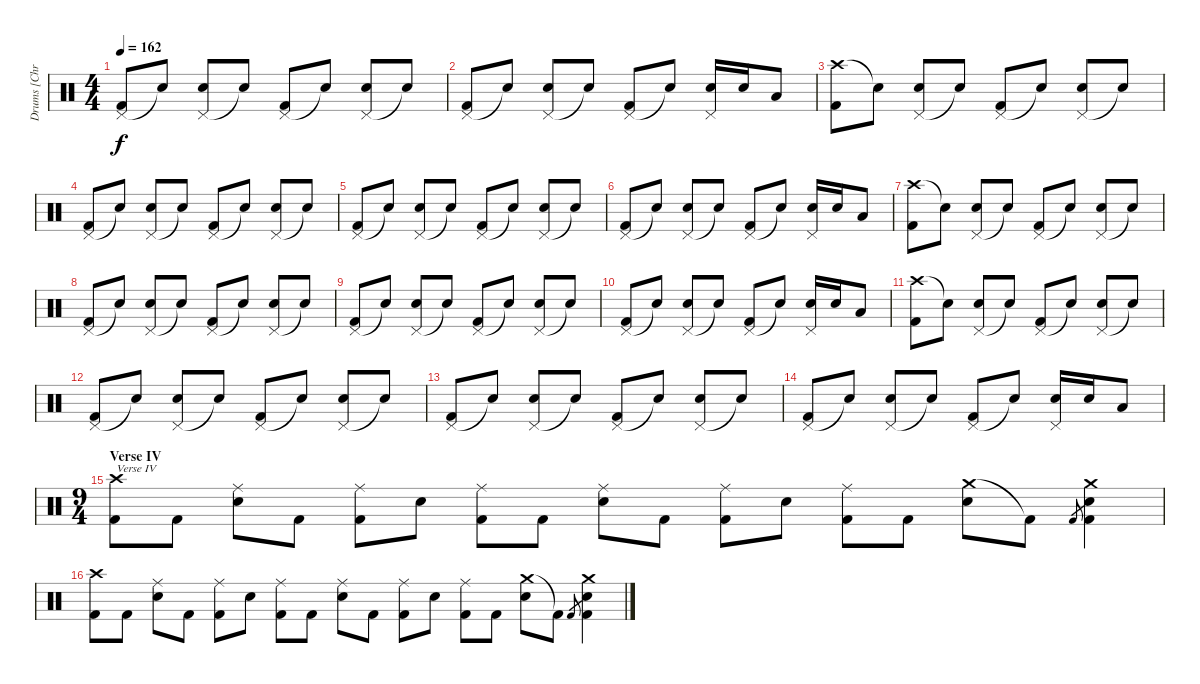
\track ("Drums [Chris Maitland]" "Drums [Chr") {instrument percussion}
\staff {score}
\articulation defaults
\ts (4 4)
\tempo 162
\clef neutral
\ks c
("Pedal Hi-Hat (hit)" "Kick (hit) 2").8{dy f} "Snare (hit)"{t}.8 ("Pedal Hi-Hat (hit)" "Electric Snare (hit)").8 "Snare (hit)"{t}.8 ("Pedal Hi-Hat (hit)" "Kick (hit) 2").8 "Snare (hit)"{t}.8 ("Pedal Hi-Hat (hit)" "Electric Snare (hit)").8 "Snare (hit)"{t}.8 |
("Pedal Hi-Hat (hit)" "Kick (hit) 2").8 "Snare (hit)"{t}.8 ("Pedal Hi-Hat (hit)" "Electric Snare (hit)").8 "Snare (hit)"{t}.8 ("Pedal Hi-Hat (hit)" "Kick (hit) 2").8 "Snare (hit)"{t}.8 ("Pedal Hi-Hat (hit)" "Electric Snare (hit)").16 "Electric Snare (hit)".16 "Low Tom (hit)".8 |
("Crash high (hit)" "Kick (hit) 2").8 "Snare (hit)"{t}.8 ("Pedal Hi-Hat (hit)" "Electric Snare (hit)").8 "Snare (hit)"{t}.8 ("Pedal Hi-Hat (hit)" "Kick (hit) 2").8 "Snare (hit)"{t}.8 ("Pedal Hi-Hat (hit)" "Electric Snare (hit)").8 "Snare (hit)"{t}.8 |
("Pedal Hi-Hat (hit)" "Kick (hit) 2").8 "Snare (hit)"{t}.8 ("Pedal Hi-Hat (hit)" "Electric Snare (hit)").8 "Snare (hit)"{t}.8 ("Pedal Hi-Hat (hit)" "Kick (hit) 2").8 "Snare (hit)"{t}.8 ("Pedal Hi-Hat (hit)" "Electric Snare (hit)").8 "Snare (hit)"{t}.8 |
("Pedal Hi-Hat (hit)" "Kick (hit) 2").8 "Snare (hit)"{t}.8 ("Pedal Hi-Hat (hit)" "Electric Snare (hit)").8 "Snare (hit)"{t}.8 ("Pedal Hi-Hat (hit)" "Kick (hit) 2").8 "Snare (hit)"{t}.8 ("Pedal Hi-Hat (hit)" "Electric Snare (hit)").8 "Snare (hit)"{t}.8 |
("Pedal Hi-Hat (hit)" "Kick (hit) 2").8 "Snare (hit)"{t}.8 ("Pedal Hi-Hat (hit)" "Electric Snare (hit)").8 "Snare (hit)"{t}.8 ("Pedal Hi-Hat (hit)" "Kick (hit) 2").8 "Snare (hit)"{t}.8 ("Pedal Hi-Hat (hit)" "Electric Snare (hit)").16 "Electric Snare (hit)".16 "Low Tom (hit)".8 |
("Crash high (hit)" "Kick (hit) 2").8 "Snare (hit)"{t}.8 ("Pedal Hi-Hat (hit)" "Electric Snare (hit)").8 "Snare (hit)"{t}.8 ("Pedal Hi-Hat (hit)" "Kick (hit) 2").8 "Snare (hit)"{t}.8 ("Pedal Hi-Hat (hit)" "Electric Snare (hit)").8 "Snare (hit)"{t}.8 |
("Pedal Hi-Hat (hit)" "Kick (hit) 2").8 "Snare (hit)"{t}.8 ("Pedal Hi-Hat (hit)" "Electric Snare (hit)").8 "Snare (hit)"{t}.8 ("Pedal Hi-Hat (hit)" "Kick (hit) 2").8 "Snare (hit)"{t}.8 ("Pedal Hi-Hat (hit)" "Electric Snare (hit)").8 "Snare (hit)"{t}.8 |
("Pedal Hi-Hat (hit)" "Kick (hit) 2").8 "Snare (hit)"{t}.8 ("Pedal Hi-Hat (hit)" "Electric Snare (hit)").8 "Snare (hit)"{t}.8 ("Pedal Hi-Hat (hit)" "Kick (hit) 2").8 "Snare (hit)"{t}.8 ("Pedal Hi-Hat (hit)" "Electric Snare (hit)").8 "Snare (hit)"{t}.8 |
("Pedal Hi-Hat (hit)" "Kick (hit) 2").8 "Snare (hit)"{t}.8 ("Pedal Hi-Hat (hit)" "Electric Snare (hit)").8 "Snare (hit)"{t}.8 ("Pedal Hi-Hat (hit)" "Kick (hit) 2").8 "Snare (hit)"{t}.8 ("Pedal Hi-Hat (hit)" "Electric Snare (hit)").16 "Electric Snare (hit)".16 "Low Tom (hit)".8 |
("Crash high (hit)" "Kick (hit) 2").8 "Snare (hit)"{t}.8 ("Pedal Hi-Hat (hit)" "Electric Snare (hit)").8 "Snare (hit)"{t}.8 ("Pedal Hi-Hat (hit)" "Kick (hit) 2").8 "Snare (hit)"{t}.8 ("Pedal Hi-Hat (hit)" "Electric Snare (hit)").8 "Snare (hit)"{t}.8 |
("Pedal Hi-Hat (hit)" "Kick (hit) 2").8 "Snare (hit)"{t}.8 ("Pedal Hi-Hat (hit)" "Electric Snare (hit)").8 "Snare (hit)"{t}.8 ("Pedal Hi-Hat (hit)" "Kick (hit) 2").8 "Snare (hit)"{t}.8 ("Pedal Hi-Hat (hit)" "Electric Snare (hit)").8 "Snare (hit)"{t}.8 |
("Pedal Hi-Hat (hit)" "Kick (hit) 2").8 "Snare (hit)"{t}.8 ("Pedal Hi-Hat (hit)" "Electric Snare (hit)").8 "Snare (hit)"{t}.8 ("Pedal Hi-Hat (hit)" "Kick (hit) 2").8 "Snare (hit)"{t}.8 ("Pedal Hi-Hat (hit)" "Electric Snare (hit)").8 "Snare (hit)"{t}.8 |
("Pedal Hi-Hat (hit)" "Kick (hit) 2").8 "Snare (hit)"{t}.8 ("Pedal Hi-Hat (hit)" "Electric Snare (hit)").8 "Snare (hit)"{t}.8 ("Pedal Hi-Hat (hit)" "Kick (hit) 2").8 "Snare (hit)"{t}.8 ("Pedal Hi-Hat (hit)" "Electric Snare (hit)").16 "Electric Snare (hit)".16 "Low Tom (hit)".8 |
\ts (9 4)
\section ("" "Verse IV")
("Crash high (hit)" "Kick (hit) 2").8{txt "Verse IV"} "Kick (hit) 2".8 ("Ride (middle)" "Electric Snare (hit)").8 "Kick (hit) 2".8 ("Ride (middle)" "Kick (hit) 2").8 "Electric Snare (hit)".8 ("Ride (middle)" "Kick (hit) 2").8 "Kick (hit) 2".8 ("Ride (middle)" "Electric Snare (hit)").8 "Kick (hit) 2".8 ("Ride (middle)" "Kick (hit) 2").8 "Electric Snare (hit)".8 ("Ride (middle)" "Kick (hit) 2").8 "Kick (hit) 2".8 ("Crash medium (hit)" "Electric Snare (hit)").8 "Kick (hit) 2"{t}.8 "Kick (hit) 2".8{gr} ("Crash medium (hit)" "Electric Snare (hit)" "Kick (hit) 2").4 |
("Crash high (hit)" "Kick (hit) 2").8 "Kick (hit) 2".8 ("Ride (middle)" "Electric Snare (hit)").8 "Kick (hit) 2".8 ("Ride (middle)" "Kick (hit) 2").8 "Electric Snare (hit)".8 ("Ride (middle)" "Kick (hit) 2").8 "Kick (hit) 2".8 ("Ride (middle)" "Electric Snare (hit)").8 "Kick (hit) 2".8 ("Ride (middle)" "Kick (hit) 2").8 "Electric Snare (hit)".8 ("Ride (middle)" "Kick (hit) 2").8 "Kick (hit) 2".8 ("Crash medium (hit)" "Electric Snare (hit)").8 "Kick (hit) 2"{t}.8 "Kick (hit) 2".8{gr} ("Crash medium (hit)" "Electric Snare (hit)" "Kick (hit) 2").4
